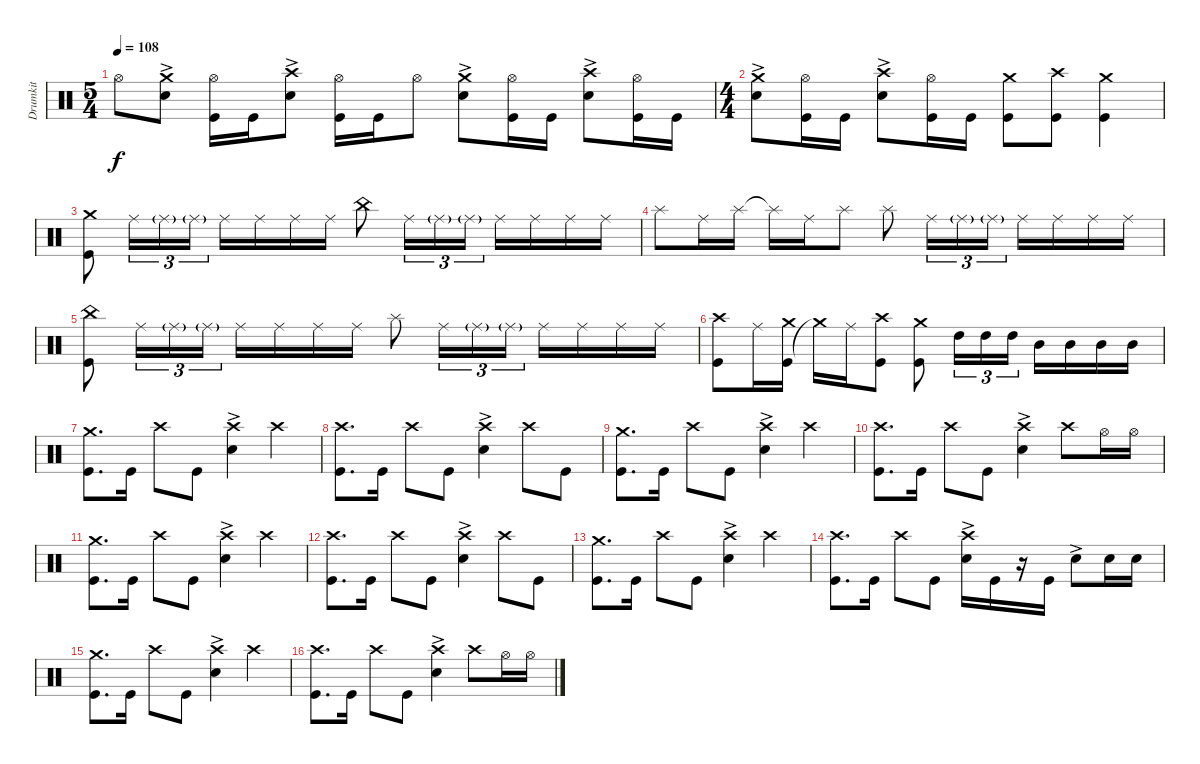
\track ("Drumkit" "Drumkit") {instrument percussion}
\staff {score}
\articulation defaults
\ts (5 4)
\tempo 108
\clef neutral
\ks c "Hi-Hat (open)".8{dy f}
("Snare (hit) 2"{ac} "Crash medium (hit)").8 ("Kick (hit)" "Hi-Hat (open)").16 "Kick (hit)".16 ("Snare (hit) 2"{ac} "Crash high (hit)").8 ("Kick (hit)" "Hi-Hat (open)").16 "Kick (hit)".16 "Hi-Hat (open)".8 ("Snare (hit) 2"{ac} "Crash medium (hit)").8 ("Kick (hit)" "Hi-Hat (open)").16 "Kick (hit)".16 ("Snare (hit) 2"{ac} "Crash high (hit)").8 ("Kick (hit)" "Hi-Hat (open)").16 "Kick (hit)".16 |
\ts (4 4)
("Snare (hit) 2"{ac} "Crash medium (hit)").8 ("Kick (hit)" "Hi-Hat (open)").16 "Kick (hit)".16 ("Snare (hit) 2"{ac} "Crash high (hit)").8 ("Kick (hit)" "Hi-Hat (open)").16 "Kick (hit)".16 ("Kick (hit)" "Crash medium (hit)").8 ("Kick (hit)" "Crash high (hit)").8 ("Kick (hit)" "Crash medium (hit)").4 |
("Kick (hit)" "Crash medium (hit)").8 "Ride (middle)".16{tu (3 2)} "Ride (middle)"{g}.16{tu (3 2)} "Ride (middle)"{g}.16{tu (3 2)} "Ride (middle)".16 "Ride (middle)".16 "Ride (middle)".16 "Ride (middle)".16 "China (hit)".8 "Ride (middle)".16{tu (3 2)} "Ride (middle)"{g}.16{tu (3 2)} "Ride (middle)"{g}.16{tu (3 2)} "Ride (middle)".16 "Ride (middle)".16 "Ride (middle)".16 "Ride (middle)".16 |
"Splash (hit)".8 "Ride (middle)".16 "Splash (hit)".16 "Splash (hit)"{t}.16 "Ride (middle)".16 "Splash (hit)".8 "Splash (hit)".8 "Ride (middle)".16{tu (3 2)} "Ride (middle)"{g}.16{tu (3 2)} "Ride (middle)"{g}.16{tu (3 2)} "Ride (middle)".16 "Ride (middle)".16 "Ride (middle)".16 "Ride (middle)".16 |
("Kick (hit)" "China (hit)").8 "Ride (middle)".16{tu (3 2)} "Ride (middle)"{g}.16{tu (3 2)} "Ride (middle)"{g}.16{tu (3 2)} "Ride (middle)".16 "Ride (middle)".16 "Ride (middle)".16 "Ride (middle)".16 "Splash (hit)".8 "Ride (middle)".16{tu (3 2)} "Ride (middle)"{g}.16{tu (3 2)} "Ride (middle)"{g}.16{tu (3 2)} "Ride (middle)".16 "Ride (middle)".16 "Ride (middle)".16 "Ride (middle)".16 |
("Kick (hit)" "Crash high (hit)").8 "Ride (middle)".16 ("Kick (hit)" "Crash medium (hit)").16 "Crash medium (hit)"{t}.16 "Ride (middle)".16 ("Kick (hit)" "Crash high (hit)").8 ("Kick (hit)" "Crash medium (hit)").8 "High Tom (hit)".16{tu (3 2)} "High Tom (hit)".16{tu (3 2)} "High Tom (hit)".16{tu (3 2)} "Mid Tom (hit)".16 "Mid Tom (hit)".16 "Mid Tom (hit)".16 "Mid Tom (hit)".16 |
("Kick (hit)" "Crash medium (hit)").8{d} "Kick (hit)".16 "Crash high (hit)".8 "Kick (hit)".8 ("Snare (hit) 2"{ac} "Crash high (hit)").4 "Crash high (hit)".4 |
("Kick (hit)" "Crash high (hit)").8{d} "Kick (hit)".16 "Crash high (hit)".8 "Kick (hit)".8 ("Snare (hit) 2"{ac} "Crash high (hit)").4 "Crash high (hit)".8 "Kick (hit)".8 |
("Kick (hit)" "Crash medium (hit)").8{d} "Kick (hit)".16 "Crash high (hit)".8 "Kick (hit)".8 ("Snare (hit) 2"{ac} "Crash high (hit)").4 "Crash high (hit)".4 |
("Kick (hit)" "Crash high (hit)").8{d} "Kick (hit)".16 "Crash high (hit)".8 "Kick (hit)".8 ("Snare (hit) 2"{ac} "Crash high (hit)").4 "Crash high (hit)".8 "Hi-Hat (open)".16 "Hi-Hat (open)".16 |
("Kick (hit)" "Crash medium (hit)").8{d} "Kick (hit)".16 "Crash high (hit)".8 "Kick (hit)".8 ("Snare (hit) 2"{ac} "Crash high (hit)").4 "Crash high (hit)".4 |
("Kick (hit)" "Crash high (hit)").8{d} "Kick (hit)".16 "Crash high (hit)".8 "Kick (hit)".8 ("Snare (hit) 2"{ac} "Crash high (hit)").4 "Crash high (hit)".8 "Kick (hit)".8 |
("Kick (hit)" "Crash medium (hit)").8{d} "Kick (hit)".16 "Crash high (hit)".8 "Kick (hit)".8 ("Snare (hit) 2"{ac} "Crash high (hit)").4 "Crash high (hit)".4 |
("Kick (hit)" "Crash high (hit)").8{d} "Kick (hit)".16 "Crash high (hit)".8 "Kick (hit)".8 ("Snare (hit) 2"{ac} "Crash high (hit)").16 "Kick (hit)".16 r.16 "Kick (hit)".16 "Snare (hit) 2"{ac}.8 "Snare (hit) 2".16 "Snare (hit) 2".16 |
("Kick (hit)" "Crash medium (hit)").8{d} "Kick (hit)".16 "Crash high (hit)".8 "Kick (hit)".8 ("Snare (hit) 2"{ac} "Crash high (hit)").4 "Crash high (hit)".4 |
("Kick (hit)" "Crash high (hit)").8{d} "Kick (hit)".16 "Crash high (hit)".8 "Kick (hit)".8 ("Snare (hit) 2"{ac} "Crash high (hit)").4 "Crash high (hit)".8 "Hi-Hat (open)".16 "Hi-Hat (open)".16
